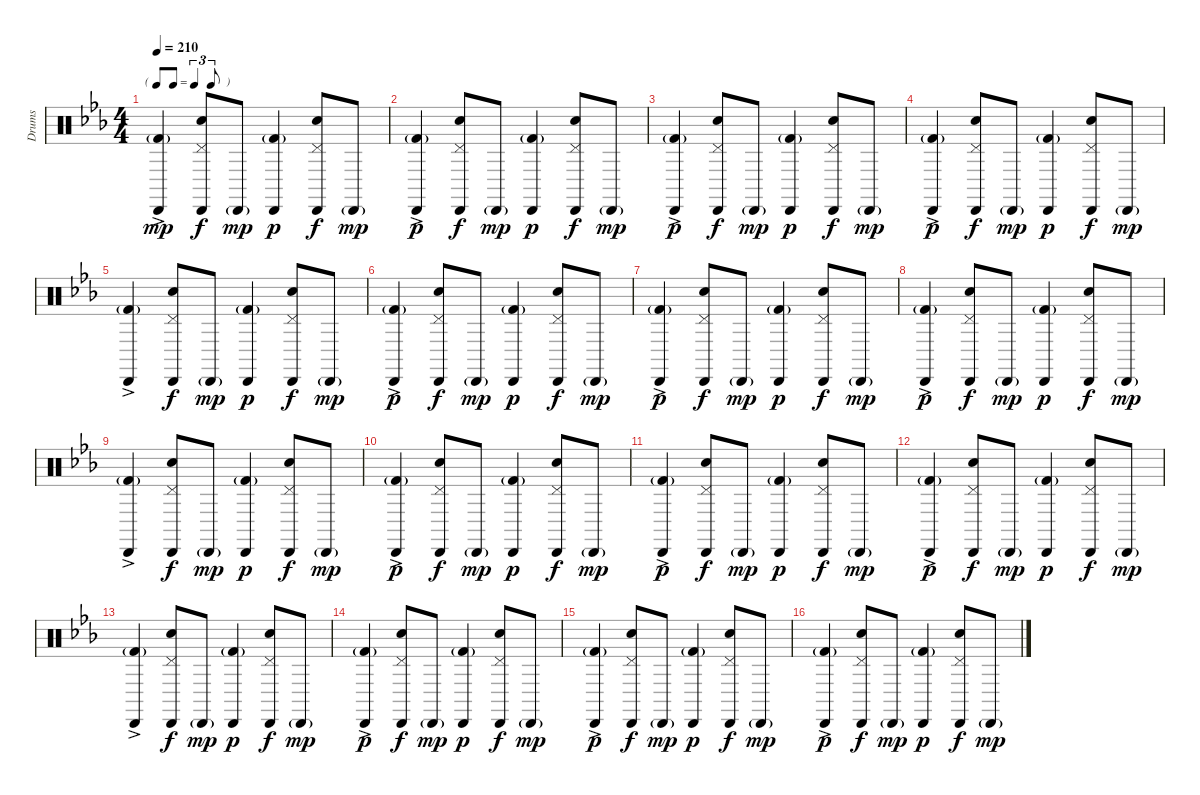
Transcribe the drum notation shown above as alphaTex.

\track ("Drums" "Drums") {instrument percussion}
\staff {score}
\articulation defaults
\ts (4 4)
\tf triplet8th
\tempo 210
\clef neutral
\ks eb
("Cabasa (hit)"{ac} "Kick (hit) 2"{g}).4{dy mp} ("Cabasa (hit)" "Hand Clap (hit)" "Pedal Hi-Hat (hit)").8{dy f} "Cabasa (hit)"{g}.8{dy mp} ("Cabasa (hit)" "Kick (hit) 2"{g}).4{dy p} ("Cabasa (hit)" "Hand Clap (hit)" "Pedal Hi-Hat (hit)").8{dy f} "Cabasa (hit)"{g}.8{dy mp} |
("Cabasa (hit)"{ac} "Kick (hit) 2"{g}).4{dy p} ("Cabasa (hit)" "Hand Clap (hit)" "Pedal Hi-Hat (hit)").8{dy f} "Cabasa (hit)"{g}.8{dy mp} ("Cabasa (hit)" "Kick (hit) 2"{g}).4{dy p} ("Cabasa (hit)" "Hand Clap (hit)" "Pedal Hi-Hat (hit)").8{dy f} "Cabasa (hit)"{g}.8{dy mp} |
("Cabasa (hit)"{ac} "Kick (hit) 2"{g}).4{dy p} ("Cabasa (hit)" "Hand Clap (hit)" "Pedal Hi-Hat (hit)").8{dy f} "Cabasa (hit)"{g}.8{dy mp} ("Cabasa (hit)" "Kick (hit) 2"{g}).4{dy p} ("Cabasa (hit)" "Hand Clap (hit)" "Pedal Hi-Hat (hit)").8{dy f} "Cabasa (hit)"{g}.8{dy mp} |
("Cabasa (hit)"{ac} "Kick (hit) 2"{g}).4{dy p} ("Cabasa (hit)" "Hand Clap (hit)" "Pedal Hi-Hat (hit)").8{dy f} "Cabasa (hit)"{g}.8{dy mp} ("Cabasa (hit)" "Kick (hit) 2"{g}).4{dy p} ("Cabasa (hit)" "Hand Clap (hit)" "Pedal Hi-Hat (hit)").8{dy f} "Cabasa (hit)"{g}.8{dy mp} |
("Cabasa (hit)"{ac} "Kick (hit) 2"{g}).4 ("Cabasa (hit)" "Hand Clap (hit)" "Pedal Hi-Hat (hit)").8{dy f} "Cabasa (hit)"{g}.8{dy mp} ("Cabasa (hit)" "Kick (hit) 2"{g}).4{dy p} ("Cabasa (hit)" "Hand Clap (hit)" "Pedal Hi-Hat (hit)").8{dy f} "Cabasa (hit)"{g}.8{dy mp} |
("Cabasa (hit)"{ac} "Kick (hit) 2"{g}).4{dy p} ("Cabasa (hit)" "Hand Clap (hit)" "Pedal Hi-Hat (hit)").8{dy f} "Cabasa (hit)"{g}.8{dy mp} ("Cabasa (hit)" "Kick (hit) 2"{g}).4{dy p} ("Cabasa (hit)" "Hand Clap (hit)" "Pedal Hi-Hat (hit)").8{dy f} "Cabasa (hit)"{g}.8{dy mp} |
("Cabasa (hit)"{ac} "Kick (hit) 2"{g}).4{dy p} ("Cabasa (hit)" "Hand Clap (hit)" "Pedal Hi-Hat (hit)").8{dy f} "Cabasa (hit)"{g}.8{dy mp} ("Cabasa (hit)" "Kick (hit) 2"{g}).4{dy p} ("Cabasa (hit)" "Hand Clap (hit)" "Pedal Hi-Hat (hit)").8{dy f} "Cabasa (hit)"{g}.8{dy mp} |
("Cabasa (hit)"{ac} "Kick (hit) 2"{g}).4{dy p} ("Cabasa (hit)" "Hand Clap (hit)" "Pedal Hi-Hat (hit)").8{dy f} "Cabasa (hit)"{g}.8{dy mp} ("Cabasa (hit)" "Kick (hit) 2"{g}).4{dy p} ("Cabasa (hit)" "Hand Clap (hit)" "Pedal Hi-Hat (hit)").8{dy f} "Cabasa (hit)"{g}.8{dy mp} |
("Cabasa (hit)"{ac} "Kick (hit) 2"{g}).4 ("Cabasa (hit)" "Hand Clap (hit)" "Pedal Hi-Hat (hit)").8{dy f} "Cabasa (hit)"{g}.8{dy mp} ("Cabasa (hit)" "Kick (hit) 2"{g}).4{dy p} ("Cabasa (hit)" "Hand Clap (hit)" "Pedal Hi-Hat (hit)").8{dy f} "Cabasa (hit)"{g}.8{dy mp} |
("Cabasa (hit)"{ac} "Kick (hit) 2"{g}).4{dy p} ("Cabasa (hit)" "Hand Clap (hit)" "Pedal Hi-Hat (hit)").8{dy f} "Cabasa (hit)"{g}.8{dy mp} ("Cabasa (hit)" "Kick (hit) 2"{g}).4{dy p} ("Cabasa (hit)" "Hand Clap (hit)" "Pedal Hi-Hat (hit)").8{dy f} "Cabasa (hit)"{g}.8{dy mp} |
("Cabasa (hit)"{ac} "Kick (hit) 2"{g}).4{dy p} ("Cabasa (hit)" "Hand Clap (hit)" "Pedal Hi-Hat (hit)").8{dy f} "Cabasa (hit)"{g}.8{dy mp} ("Cabasa (hit)" "Kick (hit) 2"{g}).4{dy p} ("Cabasa (hit)" "Hand Clap (hit)" "Pedal Hi-Hat (hit)").8{dy f} "Cabasa (hit)"{g}.8{dy mp} |
("Cabasa (hit)"{ac} "Kick (hit) 2"{g}).4{dy p} ("Cabasa (hit)" "Hand Clap (hit)" "Pedal Hi-Hat (hit)").8{dy f} "Cabasa (hit)"{g}.8{dy mp} ("Cabasa (hit)" "Kick (hit) 2"{g}).4{dy p} ("Cabasa (hit)" "Hand Clap (hit)" "Pedal Hi-Hat (hit)").8{dy f} "Cabasa (hit)"{g}.8{dy mp} |
("Cabasa (hit)"{ac} "Kick (hit) 2"{g}).4 ("Cabasa (hit)" "Hand Clap (hit)" "Pedal Hi-Hat (hit)").8{dy f} "Cabasa (hit)"{g}.8{dy mp} ("Cabasa (hit)" "Kick (hit) 2"{g}).4{dy p} ("Cabasa (hit)" "Hand Clap (hit)" "Pedal Hi-Hat (hit)").8{dy f} "Cabasa (hit)"{g}.8{dy mp} |
("Cabasa (hit)"{ac} "Kick (hit) 2"{g}).4{dy p} ("Cabasa (hit)" "Hand Clap (hit)" "Pedal Hi-Hat (hit)").8{dy f} "Cabasa (hit)"{g}.8{dy mp} ("Cabasa (hit)" "Kick (hit) 2"{g}).4{dy p} ("Cabasa (hit)" "Hand Clap (hit)" "Pedal Hi-Hat (hit)").8{dy f} "Cabasa (hit)"{g}.8{dy mp} |
("Cabasa (hit)"{ac} "Kick (hit) 2"{g}).4{dy p} ("Cabasa (hit)" "Hand Clap (hit)" "Pedal Hi-Hat (hit)").8{dy f} "Cabasa (hit)"{g}.8{dy mp} ("Cabasa (hit)" "Kick (hit) 2"{g}).4{dy p} ("Cabasa (hit)" "Hand Clap (hit)" "Pedal Hi-Hat (hit)").8{dy f} "Cabasa (hit)"{g}.8{dy mp} |
("Cabasa (hit)"{ac} "Kick (hit) 2"{g}).4{dy p} ("Cabasa (hit)" "Hand Clap (hit)" "Pedal Hi-Hat (hit)").8{dy f} "Cabasa (hit)"{g}.8{dy mp} ("Cabasa (hit)" "Kick (hit) 2"{g}).4{dy p} ("Cabasa (hit)" "Hand Clap (hit)" "Pedal Hi-Hat (hit)").8{dy f} "Cabasa (hit)"{g}.8{dy mp}
